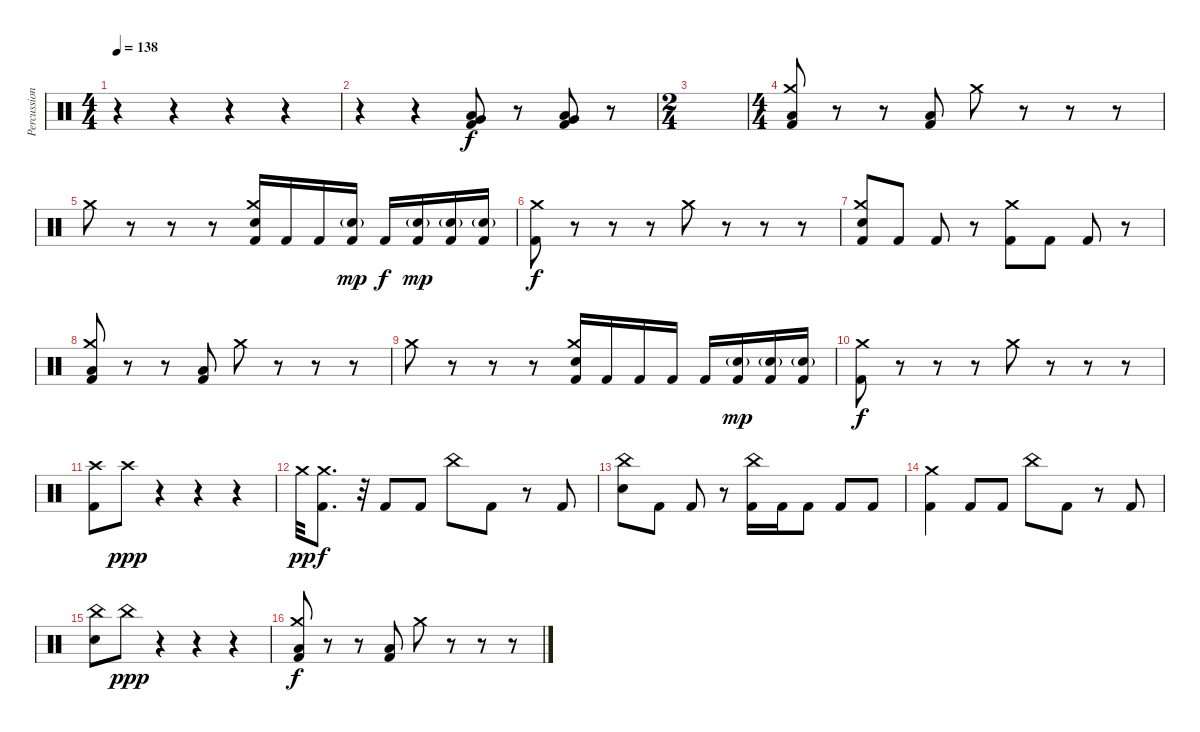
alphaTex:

\track ("Percussion" "Percussion") {instrument percussion}
\staff {score}
\articulation defaults
\ts (4 4)
\tempo 138
\clef neutral
\ks c
r.4{dy ppp} r.4 r.4 r.4 |
r.4 r.4 ("Very Low Tom (hit)" "Low Tom (hit)" "Kick (hit) 2").8{dy f} r.8 ("Very Low Tom (hit)" "Low Tom (hit)" "Kick (hit) 2").8 r.8 |
\ts (2 4)
|
\ts (4 4)
("Crash medium (hit)" "Low Floor Tom (hit)" "Kick (hit) 2").8 r.8 r.8 ("Low Floor Tom (hit)" "Kick (hit) 2").8 "Crash medium (hit)".8 r.8 r.8 r.8 |
"Crash medium (hit)".8 r.8 r.8 r.8 ("Crash medium (hit)" "Electric Snare (hit)" "Kick (hit) 2").16 "Kick (hit) 2".16 "Kick (hit) 2".16 ("Electric Snare (hit)"{g} "Kick (hit) 2").16{dy mp} "Kick (hit) 2".16{dy f} ("Electric Snare (hit)"{g} "Kick (hit) 2").16{dy mp} ("Electric Snare (hit)"{g} "Kick (hit) 2").16 ("Electric Snare (hit)"{g} "Kick (hit) 2").16 |
("Crash medium (hit)" "Kick (hit) 2").8{dy f} r.8 r.8 r.8 "Crash medium (hit)".8 r.8 r.8 r.8 |
("Crash medium (hit)" "Electric Snare (hit)" "Kick (hit) 2").8 "Kick (hit) 2".8 "Kick (hit) 2".8 r.8 ("Crash medium (hit)" "Kick (hit) 2").8 "Kick (hit) 2".8 "Kick (hit) 2".8 r.8 |
("Crash medium (hit)" "Low Floor Tom (hit)" "Kick (hit) 2").8 r.8 r.8 ("Low Floor Tom (hit)" "Kick (hit) 2").8 "Crash medium (hit)".8 r.8 r.8 r.8 |
"Crash medium (hit)".8 r.8 r.8 r.8 ("Crash medium (hit)" "Electric Snare (hit)" "Kick (hit) 2").16 "Kick (hit) 2".16 "Kick (hit) 2".16 "Kick (hit) 2".16 "Kick (hit) 2".16 ("Electric Snare (hit)"{g} "Kick (hit) 2").16{dy mp} ("Electric Snare (hit)"{g} "Kick (hit) 2").16 ("Electric Snare (hit)"{g} "Kick (hit) 2").16 |
("Crash medium (hit)" "Kick (hit) 2").8{dy f} r.8 r.8 r.8 "Crash medium (hit)".8 r.8 r.8 r.8 |
("Crash high (hit)" "Kick (hit) 2").8 "Crash high (hit)".8{dy ppp} r.4 r.4 r.4 |
"Crash medium (hit)".32{dy pp} ("Crash medium (hit)" "Kick (hit) 2").8{d dy f} r.32 "Kick (hit) 2".8 "Kick (hit) 2".8 "China (hit)".8 "Kick (hit) 2".8 r.8 "Kick (hit) 2".8 |
("China (hit)" "Electric Snare (hit)").8 "Kick (hit) 2".8 "Kick (hit) 2".8 r.8 ("China (hit)" "Kick (hit) 2").16 "Kick (hit) 2".16 "Kick (hit) 2".8 "Kick (hit) 2".8 "Kick (hit) 2".8 |
("Crash medium (hit)" "Kick (hit) 2").4 "Kick (hit) 2".8 "Kick (hit) 2".8 "China (hit)".8 "Kick (hit) 2".8 r.8 "Kick (hit) 2".8 |
("China (hit)" "Electric Snare (hit)").8 "China (hit)".8{dy ppp} r.4 r.4 r.4 |
("Crash medium (hit)" "Low Floor Tom (hit)" "Kick (hit) 2").8{dy f} r.8 r.8 ("Low Floor Tom (hit)" "Kick (hit) 2").8 "Crash medium (hit)".8 r.8 r.8 r.8
